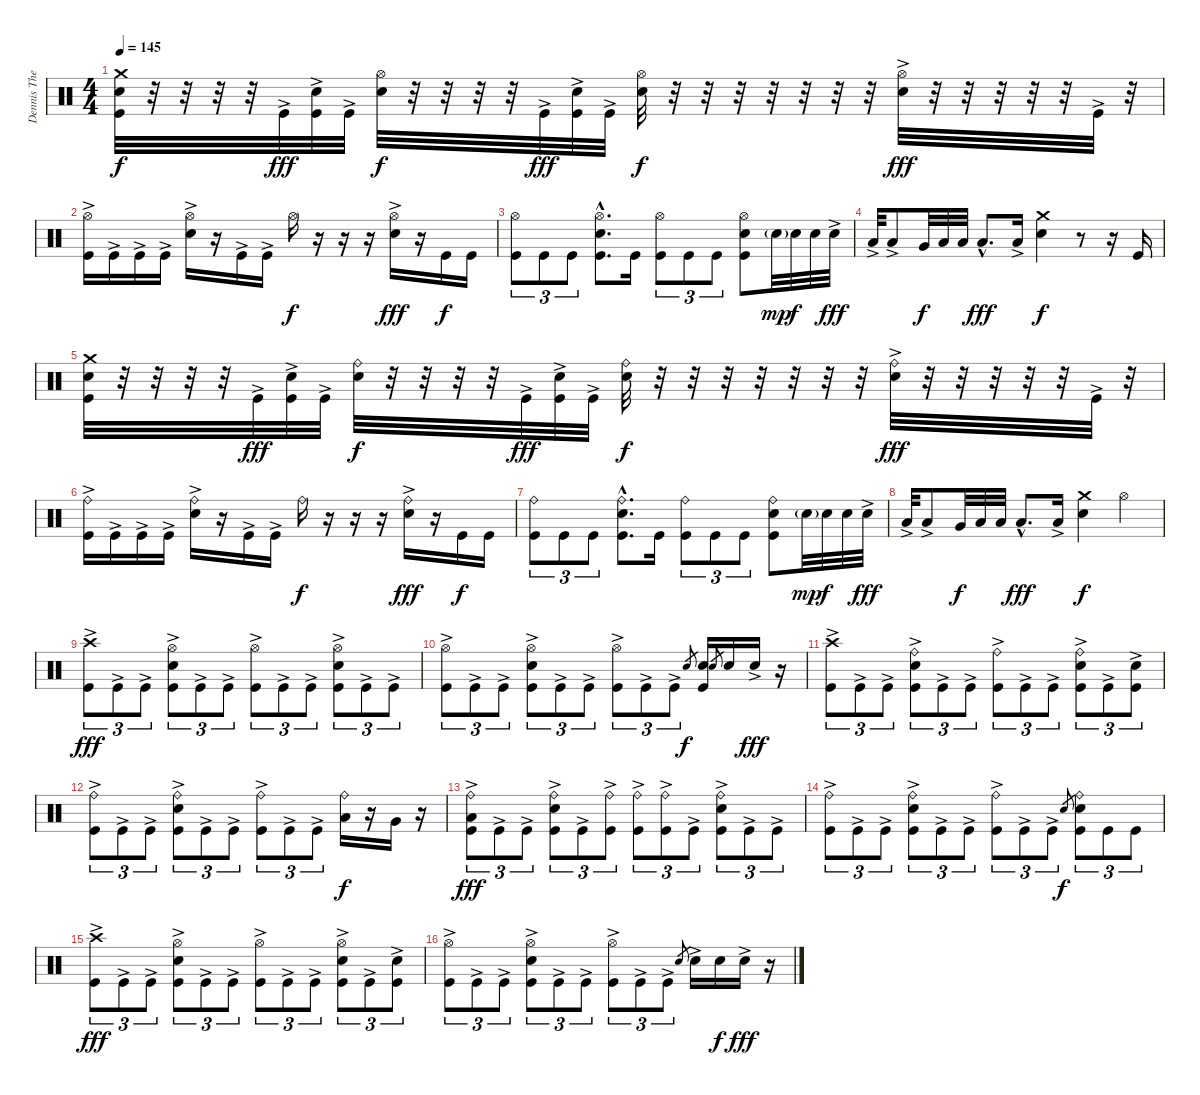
\track ("Dennis The Menace" "Dennis The") {instrument percussion}
\staff {score}
\articulation defaults
\ts (4 4)
\tempo 145
\clef neutral
\ks c
("Crash medium (hit)" "Electric Snare (hit)" "Kick (hit)").32{dy f} r.32 r.32 r.32 r.32 "Kick (hit)"{ac}.32{dy fff} ("Electric Snare (hit)" "Kick (hit)"{ac}).32 "Kick (hit)"{ac}.32 ("Hi-Hat (open)" "Electric Snare (hit)").32{dy f} r.32 r.32 r.32 r.32 "Kick (hit)"{ac}.32{dy fff} ("Electric Snare (hit)" "Kick (hit)"{ac}).32 "Kick (hit)"{ac}.32 ("Hi-Hat (open)" "Electric Snare (hit)").32{dy f} r.32 r.32 r.32 r.32 r.32 r.32 r.32 ("Hi-Hat (open)" "Electric Snare (hit)"{ac}).32{dy fff} r.32 r.32 r.32 r.32 r.32 "Kick (hit)"{ac}.32 r.32 |
("Hi-Hat (open)" "Kick (hit)"{ac}).16 "Kick (hit)"{ac}.16 "Kick (hit)"{ac}.16 "Kick (hit)"{ac}.16 ("Hi-Hat (open)" "Electric Snare (hit)"{ac}).16 r.16 "Kick (hit)"{ac}.16 "Kick (hit)"{ac}.16 "Hi-Hat (open)".16{dy f} r.16 r.16 r.16 ("Hi-Hat (open)" "Electric Snare (hit)"{ac}).16{dy fff} r.16 "Kick (hit)".16{dy f} "Kick (hit)".16 |
("Hi-Hat (open)" "Kick (hit)").8{tu (3 2)} "Kick (hit)".8{tu (3 2)} "Kick (hit)".8{tu (3 2)} ("Hi-Hat (open)"{hac} "Electric Snare (hit)"{hac} "Kick (hit)"{hac}).8{d} "Kick (hit)".16 ("Hi-Hat (open)" "Kick (hit)").8{tu (3 2)} "Kick (hit)".8{tu (3 2)} "Kick (hit)".8{tu (3 2)} ("Hi-Hat (open)" "Electric Snare (hit)" "Kick (hit)").8 "Electric Snare (hit)"{g}.32{dy mp} "Electric Snare (hit)".32{dy f} "Electric Snare (hit)".32 "Electric Snare (hit)"{ac}.32{dy fff} |
"Low Tom (hit)"{ac}.32 "Low Tom (hit)"{ac}.8 "Very Low Tom (hit)".32{dy f} "Low Floor Tom (hit)".32 "Low Floor Tom (hit)".32 "Low Floor Tom (hit)"{hac}.8{d dy fff} "Low Floor Tom (hit)"{ac}.16 ("Crash medium (hit)" "Electric Snare (hit)").4{dy f} r.8 r.16 "Kick (hit)".16 |
("Crash medium (hit)" "Electric Snare (hit)" "Kick (hit)").32 r.32 r.32 r.32 r.32 "Kick (hit)"{ac}.32{dy fff} ("Electric Snare (hit)" "Kick (hit)"{ac}).32 "Kick (hit)"{ac}.32 ("Ride (bell)" "Electric Snare (hit)").32{dy f} r.32 r.32 r.32 r.32 "Kick (hit)"{ac}.32{dy fff} ("Electric Snare (hit)" "Kick (hit)"{ac}).32 "Kick (hit)"{ac}.32 ("Ride (bell)" "Electric Snare (hit)").32{dy f} r.32 r.32 r.32 r.32 r.32 r.32 r.32 ("Ride (bell)" "Electric Snare (hit)"{ac}).32{dy fff} r.32 r.32 r.32 r.32 r.32 "Kick (hit)"{ac}.32 r.32 |
("Ride (bell)" "Kick (hit)"{ac}).16 "Kick (hit)"{ac}.16 "Kick (hit)"{ac}.16 "Kick (hit)"{ac}.16 ("Ride (bell)" "Electric Snare (hit)"{ac}).16 r.16 "Kick (hit)"{ac}.16 "Kick (hit)"{ac}.16 "Ride (bell)".16{dy f} r.16 r.16 r.16 ("Ride (bell)" "Electric Snare (hit)"{ac}).16{dy fff} r.16 "Kick (hit)".16{dy f} "Kick (hit)".16 |
("Ride (bell)" "Kick (hit)").8{tu (3 2)} "Kick (hit)".8{tu (3 2)} "Kick (hit)".8{tu (3 2)} ("Ride (bell)"{hac} "Electric Snare (hit)"{hac} "Kick (hit)"{hac}).8{d} "Kick (hit)".16 ("Ride (bell)" "Kick (hit)").8{tu (3 2)} "Kick (hit)".8{tu (3 2)} "Kick (hit)".8{tu (3 2)} ("Ride (bell)" "Electric Snare (hit)" "Kick (hit)").8 "Electric Snare (hit)"{g}.32{dy mp} "Electric Snare (hit)".32{dy f} "Electric Snare (hit)".32 "Electric Snare (hit)"{ac}.32{dy fff} |
"Low Tom (hit)"{ac}.32 "Low Tom (hit)"{ac}.8 "Very Low Tom (hit)".32{dy f} "Low Floor Tom (hit)".32 "Low Floor Tom (hit)".32 "Low Floor Tom (hit)"{hac}.8{d dy fff} "Low Floor Tom (hit)"{ac}.16 ("Crash medium (hit)" "Electric Snare (hit)").4{dy f} "Hi-Hat (open)".4 |
("Crash high (hit)" "Kick (hit)"{ac}).8{tu (3 2) dy fff} "Kick (hit)"{ac}.8{tu (3 2)} "Kick (hit)"{ac}.8{tu (3 2)} ("Hi-Hat (open)" "Electric Snare (hit)"{ac} "Kick (hit)"{ac}).8{tu (3 2)} "Kick (hit)"{ac}.8{tu (3 2)} "Kick (hit)"{ac}.8{tu (3 2)} ("Hi-Hat (open)" "Kick (hit)"{ac}).8{tu (3 2)} "Kick (hit)"{ac}.8{tu (3 2)} "Kick (hit)"{ac}.8{tu (3 2)} ("Hi-Hat (open)" "Electric Snare (hit)"{ac} "Kick (hit)"{ac}).8{tu (3 2)} "Kick (hit)"{ac}.8{tu (3 2)} "Kick (hit)"{ac}.8{tu (3 2)} |
("Hi-Hat (open)" "Kick (hit)"{ac}).8{tu (3 2)} "Kick (hit)"{ac}.8{tu (3 2)} "Kick (hit)"{ac}.8{tu (3 2)} ("Hi-Hat (open)" "Electric Snare (hit)"{ac} "Kick (hit)"{ac}).8{tu (3 2)} "Kick (hit)"{ac}.8{tu (3 2)} "Kick (hit)"{ac}.8{tu (3 2)} ("Hi-Hat (open)" "Kick (hit)"{ac}).8{tu (3 2)} "Kick (hit)"{ac}.8{tu (3 2)} "Kick (hit)"{ac}.8{tu (3 2)} "Electric Snare (hit)".8{gr dy f} ("Electric Snare (hit)" "Kick (hit)").16 "Electric Snare (hit)".8{gr} "Electric Snare (hit)".16 "Electric Snare (hit)"{ac}.16{dy fff} r.16 |
("Crash high (hit)" "Kick (hit)"{ac}).8{tu (3 2)} "Kick (hit)"{ac}.8{tu (3 2)} "Kick (hit)"{ac}.8{tu (3 2)} ("Ride (bell)" "Electric Snare (hit)"{ac} "Kick (hit)"{ac}).8{tu (3 2)} "Kick (hit)"{ac}.8{tu (3 2)} "Kick (hit)"{ac}.8{tu (3 2)} ("Ride (bell)" "Kick (hit)"{ac}).8{tu (3 2)} "Kick (hit)"{ac}.8{tu (3 2)} "Kick (hit)"{ac}.8{tu (3 2)} ("Ride (bell)" "Electric Snare (hit)"{ac} "Kick (hit)"{ac}).8{tu (3 2)} "Kick (hit)"{ac}.8{tu (3 2)} ("Electric Snare (hit)"{ac} "Kick (hit)"{ac}).8{tu (3 2)} |
("Ride (bell)" "Kick (hit)"{ac}).8{tu (3 2)} "Kick (hit)"{ac}.8{tu (3 2)} "Kick (hit)"{ac}.8{tu (3 2)} ("Ride (bell)" "Electric Snare (hit)"{ac} "Kick (hit)"{ac}).8{tu (3 2)} "Kick (hit)"{ac}.8{tu (3 2)} "Kick (hit)"{ac}.8{tu (3 2)} ("Ride (bell)" "Kick (hit)"{ac}).8{tu (3 2)} "Kick (hit)"{ac}.8{tu (3 2)} "Kick (hit)"{ac}.8{tu (3 2)} ("Ride (bell)" "Low Tom (hit)").16{dy f} r.16 "Very Low Tom (hit)".16 r.16 |
("Ride (bell)" "Low Floor Tom (hit)" "Kick (hit)"{ac}).8{tu (3 2) dy fff} "Kick (hit)"{ac}.8{tu (3 2)} "Kick (hit)"{ac}.8{tu (3 2)} ("Ride (bell)" "Electric Snare (hit)"{ac} "Kick (hit)"{ac}).8{tu (3 2)} "Kick (hit)"{ac}.8{tu (3 2)} ("Ride (bell)" "Kick (hit)"{ac}).8{tu (3 2)} ("Ride (bell)" "Kick (hit)"{ac}).8{tu (3 2)} ("Ride (bell)" "Kick (hit)"{ac}).8{tu (3 2)} "Kick (hit)"{ac}.8{tu (3 2)} ("Ride (bell)" "Electric Snare (hit)"{ac} "Kick (hit)"{ac}).8{tu (3 2)} "Kick (hit)"{ac}.8{tu (3 2)} "Kick (hit)"{ac}.8{tu (3 2)} |
("Ride (bell)" "Kick (hit)"{ac}).8{tu (3 2)} "Kick (hit)"{ac}.8{tu (3 2)} "Kick (hit)"{ac}.8{tu (3 2)} ("Ride (bell)" "Electric Snare (hit)"{ac} "Kick (hit)"{ac}).8{tu (3 2)} "Kick (hit)"{ac}.8{tu (3 2)} "Kick (hit)"{ac}.8{tu (3 2)} ("Ride (bell)" "Kick (hit)"{ac}).8{tu (3 2)} "Kick (hit)"{ac}.8{tu (3 2)} "Kick (hit)"{ac}.8{tu (3 2)} "Electric Snare (hit)".8{gr dy f} ("Ride (bell)" "Electric Snare (hit)" "Kick (hit)").8{tu (3 2)} "Kick (hit)".8{tu (3 2)} "Kick (hit)".8{tu (3 2)} |
("Crash high (hit)" "Kick (hit)"{ac}).8{tu (3 2) dy fff} "Kick (hit)"{ac}.8{tu (3 2)} "Kick (hit)"{ac}.8{tu (3 2)} ("Hi-Hat (open)" "Electric Snare (hit)"{ac} "Kick (hit)"{ac}).8{tu (3 2)} "Kick (hit)"{ac}.8{tu (3 2)} "Kick (hit)"{ac}.8{tu (3 2)} ("Hi-Hat (open)" "Kick (hit)"{ac}).8{tu (3 2)} "Kick (hit)"{ac}.8{tu (3 2)} "Kick (hit)"{ac}.8{tu (3 2)} ("Hi-Hat (open)" "Electric Snare (hit)"{ac} "Kick (hit)"{ac}).8{tu (3 2)} "Kick (hit)"{ac}.8{tu (3 2)} ("Electric Snare (hit)"{ac} "Kick (hit)"{ac}).8{tu (3 2)} |
("Hi-Hat (open)" "Kick (hit)"{ac}).8{tu (3 2)} "Kick (hit)"{ac}.8{tu (3 2)} "Kick (hit)"{ac}.8{tu (3 2)} ("Hi-Hat (open)" "Electric Snare (hit)"{ac} "Kick (hit)"{ac}).8{tu (3 2)} "Kick (hit)"{ac}.8{tu (3 2)} "Kick (hit)"{ac}.8{tu (3 2)} ("Hi-Hat (open)" "Kick (hit)"{ac}).8{tu (3 2)} "Kick (hit)"{ac}.8{tu (3 2)} "Kick (hit)"{ac}.8{tu (3 2)} "Electric Snare (hit)".8{gr} "Electric Snare (hit)"{ac}.16 "Electric Snare (hit)".16{dy f} "Electric Snare (hit)"{ac}.16{dy fff} r.16
